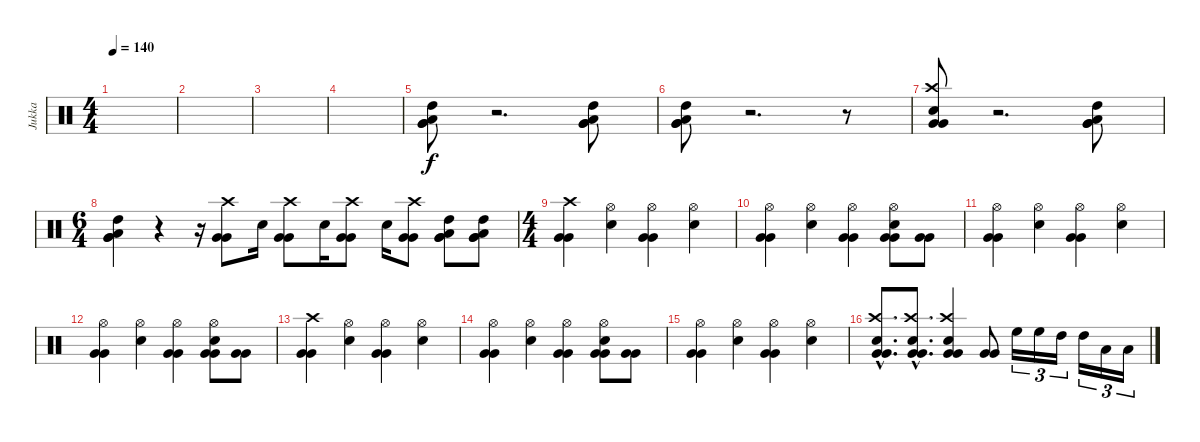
\track ("Jukka" "Jukka") {instrument percussion}
\staff {score}
\articulation defaults
\ts (4 4)
\tempo 140
\clef neutral
\ks c
|
|
|
|
("High Tom (hit)" "Low Tom (hit)" "Very Low Tom (hit)" "Very Low Tom (hit)").8 r.2{d} ("High Tom (hit)" "Low Tom (hit)" "Very Low Tom (hit)" "Very Low Tom (hit)").8 |
("High Tom (hit)" "Low Tom (hit)" "Very Low Tom (hit)" "Very Low Tom (hit)").8 r.2{d} r.8 |
("Crash high (hit)" "Electric Snare (hit)" "Very Low Tom (hit)" "Very Low Tom (hit)").8 r.2{d} ("High Tom (hit)" "Low Tom (hit)" "Very Low Tom (hit)" "Very Low Tom (hit)").8 |
\ts (6 4)
("High Tom (hit)" "Low Tom (hit)" "Very Low Tom (hit)" "Very Low Tom (hit)").4 r.4 r.16 ("Crash high (hit)" "Very Low Tom (hit)" "Very Low Tom (hit)").8 "Electric Snare (hit)".16 ("Crash high (hit)" "Very Low Tom (hit)" "Very Low Tom (hit)").8 "Electric Snare (hit)".16 ("Crash high (hit)" "Very Low Tom (hit)" "Very Low Tom (hit)").8 "Electric Snare (hit)".16 ("Crash high (hit)" "Very Low Tom (hit)" "Very Low Tom (hit)").8 ("High Tom (hit)" "Low Tom (hit)" "Very Low Tom (hit)" "Very Low Tom (hit)").8 ("High Tom (hit)" "Low Tom (hit)" "Very Low Tom (hit)" "Very Low Tom (hit)").8 |
\ts (4 4)
("Crash high (hit)" "Very Low Tom (hit)" "Very Low Tom (hit)").4 ("Hi-Hat (open)" "Electric Snare (hit)").4 ("Hi-Hat (open)" "Very Low Tom (hit)" "Very Low Tom (hit)").4 ("Hi-Hat (open)" "Electric Snare (hit)").4 |
("Hi-Hat (open)" "Very Low Tom (hit)" "Very Low Tom (hit)").4 ("Hi-Hat (open)" "Electric Snare (hit)").4 ("Hi-Hat (open)" "Very Low Tom (hit)" "Very Low Tom (hit)").4 ("Hi-Hat (open)" "Electric Snare (hit)" "Very Low Tom (hit)" "Very Low Tom (hit)").8 ("Very Low Tom (hit)" "Very Low Tom (hit)").8 |
("Hi-Hat (open)" "Very Low Tom (hit)" "Very Low Tom (hit)").4 ("Hi-Hat (open)" "Electric Snare (hit)").4 ("Hi-Hat (open)" "Very Low Tom (hit)" "Very Low Tom (hit)").4 ("Hi-Hat (open)" "Electric Snare (hit)").4 |
("Hi-Hat (open)" "Very Low Tom (hit)" "Very Low Tom (hit)").4 ("Hi-Hat (open)" "Electric Snare (hit)").4 ("Hi-Hat (open)" "Very Low Tom (hit)" "Very Low Tom (hit)").4 ("Hi-Hat (open)" "Electric Snare (hit)" "Very Low Tom (hit)" "Very Low Tom (hit)").8 ("Very Low Tom (hit)" "Very Low Tom (hit)").8 |
("Crash high (hit)" "Very Low Tom (hit)" "Very Low Tom (hit)").4 ("Hi-Hat (open)" "Electric Snare (hit)").4 ("Hi-Hat (open)" "Very Low Tom (hit)" "Very Low Tom (hit)").4 ("Hi-Hat (open)" "Electric Snare (hit)").4 |
("Hi-Hat (open)" "Very Low Tom (hit)" "Very Low Tom (hit)").4 ("Hi-Hat (open)" "Electric Snare (hit)").4 ("Hi-Hat (open)" "Very Low Tom (hit)" "Very Low Tom (hit)").4 ("Hi-Hat (open)" "Electric Snare (hit)" "Very Low Tom (hit)" "Very Low Tom (hit)").8 ("Very Low Tom (hit)" "Very Low Tom (hit)").8 |
("Hi-Hat (open)" "Very Low Tom (hit)" "Very Low Tom (hit)").4 ("Hi-Hat (open)" "Electric Snare (hit)").4 ("Hi-Hat (open)" "Very Low Tom (hit)" "Very Low Tom (hit)").4 ("Hi-Hat (open)" "Electric Snare (hit)").4 |
("Crash high (hit)"{hac} "Electric Snare (hit)"{hac} "Very Low Tom (hit)"{hac} "Very Low Tom (hit)"{hac}).8{d} ("Crash high (hit)"{hac} "Electric Snare (hit)"{hac} "Very Low Tom (hit)"{hac} "Very Low Tom (hit)"{hac}).8{d} ("Crash high (hit)" "Electric Snare (hit)" "Very Low Tom (hit)" "Very Low Tom (hit)").4 ("Very Low Tom (hit)" "Very Low Tom (hit)").8 "High Floor Tom (hit)".16{tu (3 2)} "High Floor Tom (hit)".16{tu (3 2)} "High Tom (hit)".16{tu (3 2)} "High Tom (hit)".16{tu (3 2)} "Low Tom (hit)".16{tu (3 2)} "Low Tom (hit)".16{tu (3 2)}
